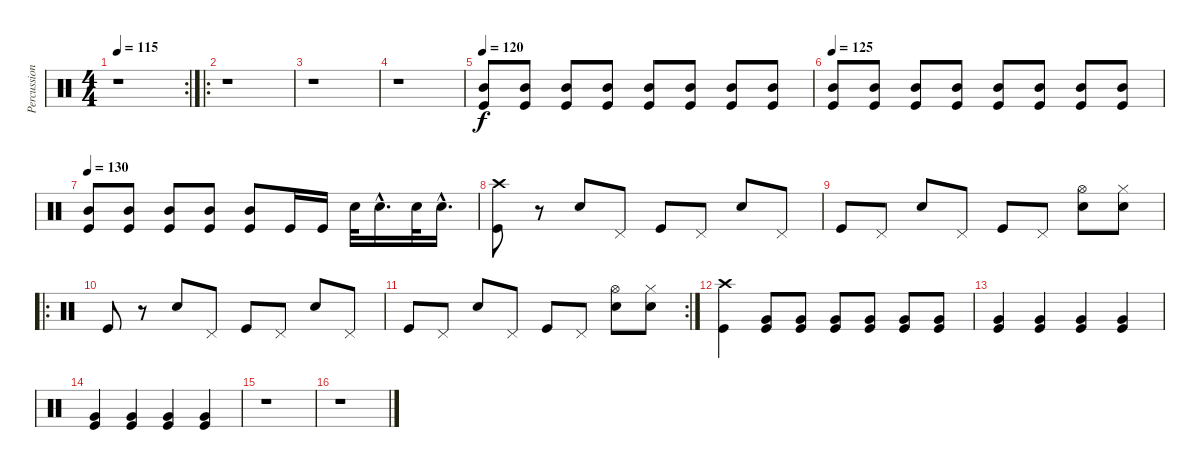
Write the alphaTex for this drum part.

\track ("Percussions" "Percussion") {instrument percussion}
\staff {score}
\articulation defaults
\rc 2
\ts (4 4)
\tempo 115
\clef neutral
\ks c
r.1{dy f} |
\ro
r.1 |
r.1 |
r.1 |
\tempo 120
("Mid Tom (hit)" "Kick (hit)").8{volume 4} ("Mid Tom (hit)" "Kick (hit)").8{volume 8} ("Mid Tom (hit)" "Kick (hit)").8 ("Mid Tom (hit)" "Kick (hit)").8 ("Mid Tom (hit)" "Kick (hit)").8 ("Mid Tom (hit)" "Kick (hit)").8 ("Mid Tom (hit)" "Kick (hit)").8 ("Mid Tom (hit)" "Kick (hit)").8 |
\tempo 125
("Mid Tom (hit)" "Kick (hit)").8{volume 16} ("Mid Tom (hit)" "Kick (hit)").8 ("Mid Tom (hit)" "Kick (hit)").8 ("Mid Tom (hit)" "Kick (hit)").8 ("Mid Tom (hit)" "Kick (hit)").8 ("Mid Tom (hit)" "Kick (hit)").8 ("Mid Tom (hit)" "Kick (hit)").8 ("Mid Tom (hit)" "Kick (hit)").8 |
\tempo 130
("Mid Tom (hit)" "Kick (hit)").8 ("Mid Tom (hit)" "Kick (hit)").8 ("Mid Tom (hit)" "Kick (hit)").8 ("Mid Tom (hit)" "Kick (hit)").8 ("Mid Tom (hit)" "Kick (hit)").8 "Kick (hit)".16 "Kick (hit)".16 "Snare (hit) 2".32 "Snare (hit) 2"{hac}.16{d} "Snare (hit) 2".32 "Snare (hit) 2"{hac}.16{d} |
("Crash high (hit)" "Kick (hit)").8 r.8 "Snare (hit) 2".8 "Pedal Hi-Hat (hit)".8 "Kick (hit)".8 "Pedal Hi-Hat (hit)".8 "Snare (hit) 2".8 "Pedal Hi-Hat (hit)".8 |
"Kick (hit)".8 "Pedal Hi-Hat (hit)".8 "Snare (hit) 2".8 "Pedal Hi-Hat (hit)".8 "Kick (hit)".8 "Pedal Hi-Hat (hit)".8 ("Hi-Hat (open)" "Snare (hit) 2").8 ("Hi-Hat (closed)" "Snare (hit) 2").8 |
\ro "Kick (hit)".8
r.8 "Snare (hit) 2".8 "Pedal Hi-Hat (hit)".8 "Kick (hit)".8 "Pedal Hi-Hat (hit)".8 "Snare (hit) 2".8 "Pedal Hi-Hat (hit)".8 |
\rc 2 "Kick (hit)".8 "Pedal Hi-Hat (hit)".8 "Snare (hit) 2".8 "Pedal Hi-Hat (hit)".8 "Kick (hit)".8 "Pedal Hi-Hat (hit)".8
("Hi-Hat (open)" "Snare (hit) 2").8 ("Hi-Hat (closed)" "Snare (hit) 2").8 |
("Crash high (hit)" "Kick (hit)").4 ("Very Low Tom (hit)" "Kick (hit)").8 ("Very Low Tom (hit)" "Kick (hit)").8 ("Very Low Tom (hit)" "Kick (hit)").8 ("Very Low Tom (hit)" "Kick (hit)").8 ("Very Low Tom (hit)" "Kick (hit)").8 ("Very Low Tom (hit)" "Kick (hit)").8 |
("Very Low Tom (hit)" "Kick (hit)").4 ("Very Low Tom (hit)" "Kick (hit)").4 ("Very Low Tom (hit)" "Kick (hit)").4 ("Very Low Tom (hit)" "Kick (hit)").4 |
("Very Low Tom (hit)" "Kick (hit)").4 ("Very Low Tom (hit)" "Kick (hit)").4 ("Very Low Tom (hit)" "Kick (hit)").4 ("Very Low Tom (hit)" "Kick (hit)").4 |
r.1 |
r.1
